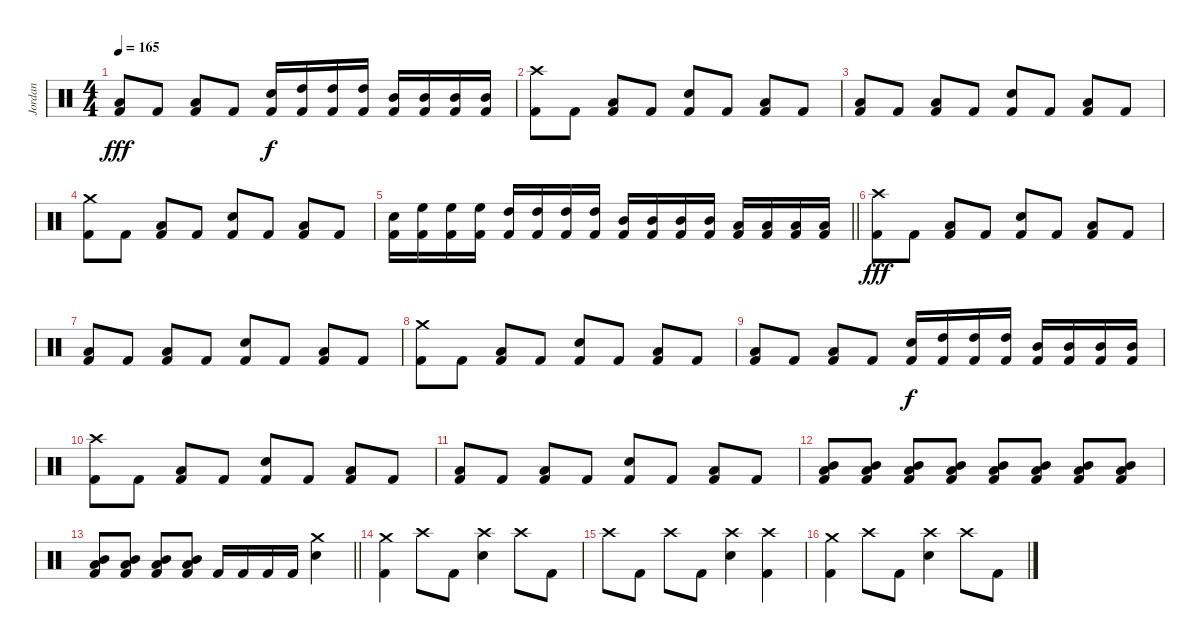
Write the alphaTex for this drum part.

\track ("Jordan" "Jordan") {instrument percussion}
\staff {score}
\articulation defaults
\ts (4 4)
\tempo 165
\clef neutral
\ks c
("Low Tom (hit)" "Kick (hit) 2").8{dy fff} "Kick (hit) 2".8 ("Low Tom (hit)" "Kick (hit) 2").8 "Kick (hit) 2".8 ("Electric Snare (hit)" "Kick (hit) 2").16{dy f} ("High Tom (hit)" "Kick (hit) 2").16 ("High Tom (hit)" "Kick (hit) 2").16 ("High Tom (hit)" "Kick (hit) 2").16 ("Mid Tom (hit)" "Kick (hit) 2").16 ("Mid Tom (hit)" "Kick (hit) 2").16 ("Mid Tom (hit)" "Kick (hit) 2").16 ("Mid Tom (hit)" "Kick (hit) 2").16 |
("Crash high (hit)" "Kick (hit) 2").8 "Kick (hit) 2".8 ("Low Tom (hit)" "Kick (hit) 2").8 "Kick (hit) 2".8 ("Electric Snare (hit)" "Kick (hit) 2").8 "Kick (hit) 2".8 ("Low Tom (hit)" "Kick (hit) 2").8 "Kick (hit) 2".8 |
("Low Tom (hit)" "Kick (hit) 2").8 "Kick (hit) 2".8 ("Low Tom (hit)" "Kick (hit) 2").8 "Kick (hit) 2".8 ("Electric Snare (hit)" "Kick (hit) 2").8 "Kick (hit) 2".8 ("Low Tom (hit)" "Kick (hit) 2").8 "Kick (hit) 2".8 |
("Crash medium (hit)" "Kick (hit) 2").8 "Kick (hit) 2".8 ("Low Tom (hit)" "Kick (hit) 2").8 "Kick (hit) 2".8 ("Electric Snare (hit)" "Kick (hit) 2").8 "Kick (hit) 2".8 ("Low Tom (hit)" "Kick (hit) 2").8 "Kick (hit) 2".8 |
\barLineRight lightlight
("Electric Snare (hit)" "Kick (hit) 2").16 ("High Floor Tom (hit)" "Kick (hit) 2").16 ("High Floor Tom (hit)" "Kick (hit) 2").16 ("High Floor Tom (hit)" "Kick (hit) 2").16 ("High Tom (hit)" "Kick (hit) 2").16 ("High Tom (hit)" "Kick (hit) 2").16 ("High Tom (hit)" "Kick (hit) 2").16 ("High Tom (hit)" "Kick (hit) 2").16 ("Mid Tom (hit)" "Kick (hit) 2").16 ("Mid Tom (hit)" "Kick (hit) 2").16 ("Mid Tom (hit)" "Kick (hit) 2").16 ("Mid Tom (hit)" "Kick (hit) 2").16 ("Low Tom (hit)" "Kick (hit) 2").16 ("Low Tom (hit)" "Kick (hit) 2").16 ("Low Tom (hit)" "Kick (hit) 2").16 ("Low Tom (hit)" "Kick (hit) 2").16 |
("Crash high (hit)" "Kick (hit) 2").8{dy fff} "Kick (hit) 2".8 ("Low Tom (hit)" "Kick (hit) 2").8 "Kick (hit) 2".8 ("Electric Snare (hit)" "Kick (hit) 2").8 "Kick (hit) 2".8 ("Low Tom (hit)" "Kick (hit) 2").8 "Kick (hit) 2".8 |
("Low Tom (hit)" "Kick (hit) 2").8 "Kick (hit) 2".8 ("Low Tom (hit)" "Kick (hit) 2").8 "Kick (hit) 2".8 ("Electric Snare (hit)" "Kick (hit) 2").8 "Kick (hit) 2".8 ("Low Tom (hit)" "Kick (hit) 2").8 "Kick (hit) 2".8 |
("Crash medium (hit)" "Kick (hit) 2").8 "Kick (hit) 2".8 ("Low Tom (hit)" "Kick (hit) 2").8 "Kick (hit) 2".8 ("Electric Snare (hit)" "Kick (hit) 2").8 "Kick (hit) 2".8 ("Low Tom (hit)" "Kick (hit) 2").8 "Kick (hit) 2".8 |
("Low Tom (hit)" "Kick (hit) 2").8 "Kick (hit) 2".8 ("Low Tom (hit)" "Kick (hit) 2").8 "Kick (hit) 2".8 ("Electric Snare (hit)" "Kick (hit) 2").16{dy f} ("High Tom (hit)" "Kick (hit) 2").16 ("High Tom (hit)" "Kick (hit) 2").16 ("High Tom (hit)" "Kick (hit) 2").16 ("Mid Tom (hit)" "Kick (hit) 2").16 ("Mid Tom (hit)" "Kick (hit) 2").16 ("Mid Tom (hit)" "Kick (hit) 2").16 ("Mid Tom (hit)" "Kick (hit) 2").16 |
("Crash high (hit)" "Kick (hit) 2").8 "Kick (hit) 2".8 ("Low Tom (hit)" "Kick (hit) 2").8 "Kick (hit) 2".8 ("Electric Snare (hit)" "Kick (hit) 2").8 "Kick (hit) 2".8 ("Low Tom (hit)" "Kick (hit) 2").8 "Kick (hit) 2".8 |
("Low Tom (hit)" "Kick (hit) 2").8 "Kick (hit) 2".8 ("Low Tom (hit)" "Kick (hit) 2").8 "Kick (hit) 2".8 ("Electric Snare (hit)" "Kick (hit) 2").8 "Kick (hit) 2".8 ("Low Tom (hit)" "Kick (hit) 2").8 "Kick (hit) 2".8 |
("Mid Tom (hit)" "Low Tom (hit)" "Kick (hit) 2").8 ("Mid Tom (hit)" "Low Tom (hit)" "Kick (hit) 2").8 ("Mid Tom (hit)" "Low Tom (hit)" "Kick (hit) 2").8 ("Mid Tom (hit)" "Low Tom (hit)" "Kick (hit) 2").8 ("Mid Tom (hit)" "Low Tom (hit)" "Kick (hit) 2").8 ("Mid Tom (hit)" "Low Tom (hit)" "Kick (hit) 2").8 ("Mid Tom (hit)" "Low Tom (hit)" "Kick (hit) 2").8 ("Mid Tom (hit)" "Low Tom (hit)" "Kick (hit) 2").8 |
\barLineRight lightlight
("Mid Tom (hit)" "Low Tom (hit)" "Kick (hit) 2").8 ("Mid Tom (hit)" "Low Tom (hit)" "Kick (hit) 2").8 ("Mid Tom (hit)" "Low Tom (hit)" "Kick (hit) 2").8 ("Mid Tom (hit)" "Low Tom (hit)" "Kick (hit) 2").8 "Kick (hit) 2".16 "Kick (hit) 2".16 "Kick (hit) 2".16 "Kick (hit) 2".16 ("Crash medium (hit)" "Electric Snare (hit)").4 |
("Crash medium (hit)" "Kick (hit) 2").4 "Crash high (hit)".8 "Kick (hit) 2".8 ("Crash high (hit)" "Electric Snare (hit)").4 "Crash high (hit)".8 "Kick (hit) 2".8 |
"Crash high (hit)".8 "Kick (hit) 2".8 "Crash high (hit)".8 "Kick (hit) 2".8 ("Crash high (hit)" "Electric Snare (hit)").4 ("Crash high (hit)" "Kick (hit) 2").4 |
("Crash medium (hit)" "Kick (hit) 2").4 "Crash high (hit)".8 "Kick (hit) 2".8 ("Crash high (hit)" "Electric Snare (hit)").4 "Crash high (hit)".8 "Kick (hit) 2".8
